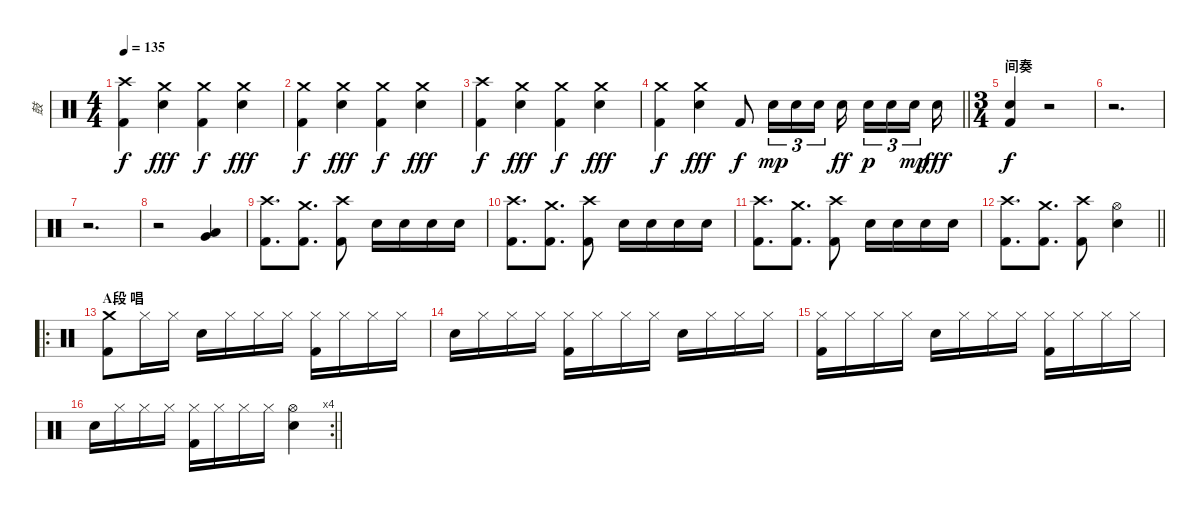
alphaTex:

\track ("鼓" "鼓") {instrument percussion}
\staff {score}
\articulation defaults
\ts (4 4)
\tempo 135
\clef neutral
\ks c
("Crash high (hit)" "Kick (hit) 2").4{dy f} ("Crash medium (hit)" "Electric Snare (hit)").4{dy fff} ("Crash medium (hit)" "Kick (hit) 2").4{dy f} ("Crash medium (hit)" "Electric Snare (hit)").4{dy fff} |
("Crash medium (hit)" "Kick (hit) 2").4{dy f} ("Crash medium (hit)" "Electric Snare (hit)").4{dy fff} ("Crash medium (hit)" "Kick (hit) 2").4{dy f} ("Crash medium (hit)" "Electric Snare (hit)").4{dy fff} |
("Crash high (hit)" "Kick (hit) 2").4{dy f} ("Crash medium (hit)" "Electric Snare (hit)").4{dy fff} ("Crash medium (hit)" "Kick (hit) 2").4{dy f} ("Crash medium (hit)" "Electric Snare (hit)").4{dy fff} |
\barLineRight lightlight
("Crash medium (hit)" "Kick (hit) 2").4{dy f} ("Crash medium (hit)" "Electric Snare (hit)").4{dy fff} "Kick (hit) 2".8{dy f} "Electric Snare (hit)".16{tu (3 2) dy mp} "Electric Snare (hit)".16{tu (3 2)} "Electric Snare (hit)".16{tu (3 2)} "Electric Snare (hit)".16{dy ff beam splitsecondary} "Electric Snare (hit)".16{tu (3 2) dy p} "Electric Snare (hit)".16{tu (3 2)} "Electric Snare (hit)".16{tu (3 2) dy mp beam splitsecondary} "Electric Snare (hit)".16{dy fff} |
\ts (3 4)
\section ("" "间奏")
("Electric Snare (hit)" "Kick (hit) 2").4{dy f} r.2 |
r.2{d} |
r.2{d} |
r.2 ("Very Low Tom (hit)" "Low Floor Tom (hit)").4 |
("Crash high (hit)" "Kick (hit) 2").8{d} ("Crash medium (hit)" "Kick (hit) 2").8{d} ("Crash high (hit)" "Kick (hit) 2").8 "Electric Snare (hit)".16 "Electric Snare (hit)".16 "Electric Snare (hit)".16 "Electric Snare (hit)".16 |
("Crash high (hit)" "Kick (hit) 2").8{d} ("Crash medium (hit)" "Kick (hit) 2").8{d} ("Crash high (hit)" "Kick (hit) 2").8 "Electric Snare (hit)".16 "Electric Snare (hit)".16 "Electric Snare (hit)".16 "Electric Snare (hit)".16 |
("Crash high (hit)" "Kick (hit) 2").8{d} ("Crash medium (hit)" "Kick (hit) 2").8{d} ("Crash high (hit)" "Kick (hit) 2").8 "Electric Snare (hit)".16 "Electric Snare (hit)".16 "Electric Snare (hit)".16 "Electric Snare (hit)".16 |
\barLineRight lightlight
("Crash high (hit)" "Kick (hit) 2").8{d} ("Crash medium (hit)" "Kick (hit) 2").8{d} ("Crash high (hit)" "Kick (hit) 2").8 ("Hi-Hat (open)" "Electric Snare (hit)").4 |
\ro
\section ("" "A段 唱")
("Crash medium (hit)" "Kick (hit) 2").8 "Hi-Hat (closed)".16 "Hi-Hat (closed)".16 "Electric Snare (hit)".16 "Hi-Hat (closed)".16 "Hi-Hat (closed)".16 "Hi-Hat (closed)".16 ("Hi-Hat (closed)" "Kick (hit) 2").16 "Hi-Hat (closed)".16 "Hi-Hat (closed)".16 "Hi-Hat (closed)".16 |
"Electric Snare (hit)".16 "Hi-Hat (closed)".16 "Hi-Hat (closed)".16 "Hi-Hat (closed)".16 ("Hi-Hat (closed)" "Kick (hit) 2").16 "Hi-Hat (closed)".16 "Hi-Hat (closed)".16 "Hi-Hat (closed)".16 "Electric Snare (hit)".16 "Hi-Hat (closed)".16 "Hi-Hat (closed)".16 "Hi-Hat (closed)".16 |
("Hi-Hat (closed)" "Kick (hit) 2").16 "Hi-Hat (closed)".16 "Hi-Hat (closed)".16 "Hi-Hat (closed)".16 "Electric Snare (hit)".16 "Hi-Hat (closed)".16 "Hi-Hat (closed)".16 "Hi-Hat (closed)".16 ("Hi-Hat (closed)" "Kick (hit) 2").16 "Hi-Hat (closed)".16 "Hi-Hat (closed)".16 "Hi-Hat (closed)".16 |
\rc 4
\barLineRight lightlight "Electric Snare (hit)".16 "Hi-Hat (closed)".16 "Hi-Hat (closed)".16 "Hi-Hat (closed)".16
("Hi-Hat (closed)" "Kick (hit) 2").16 "Hi-Hat (closed)".16 "Hi-Hat (closed)".16 "Hi-Hat (closed)".16 ("Hi-Hat (open)" "Electric Snare (hit)").4
